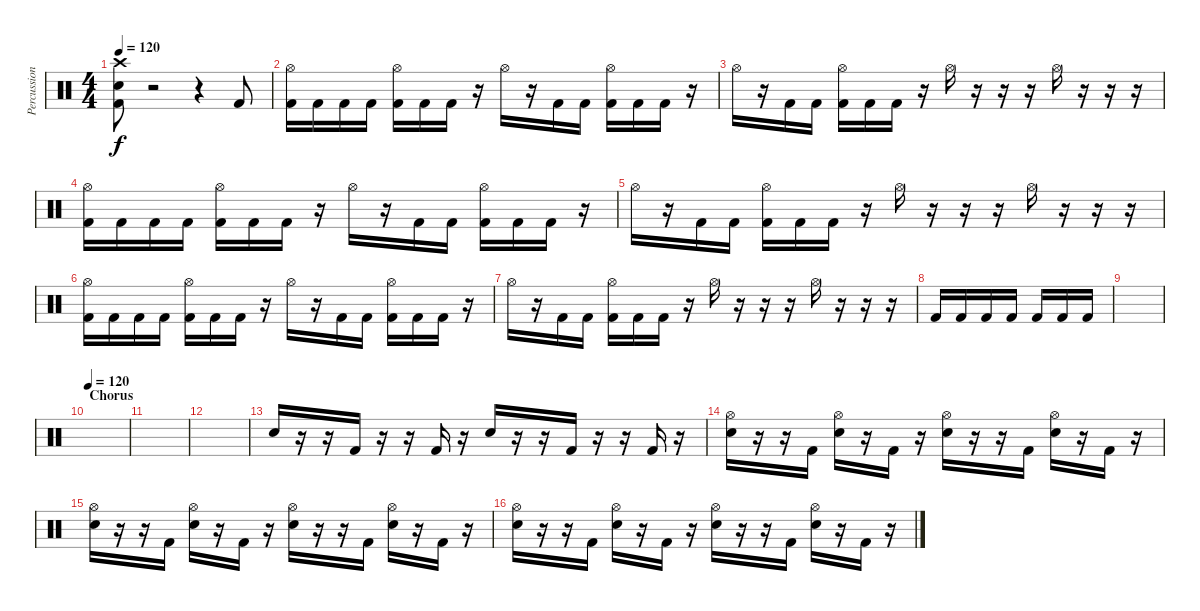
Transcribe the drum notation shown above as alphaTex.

\track ("Percussion" "Percussion") {instrument percussion}
\staff {score}
\articulation defaults
\ts (4 4)
\tempo 120
\clef neutral
\ks c
("Crash high (hit)" "Electric Snare (hit)" "Kick (hit) 2").8{dy f} r.2 r.4 "Kick (hit) 2".8 |
("Hi-Hat (open)" "Kick (hit) 2").16 "Kick (hit) 2".16 "Kick (hit) 2".16 "Kick (hit) 2".16 ("Hi-Hat (open)" "Kick (hit) 2").16 "Kick (hit) 2".16 "Kick (hit) 2".16 r.16 "Hi-Hat (open)".16 r.16 "Kick (hit) 2".16 "Kick (hit) 2".16 ("Hi-Hat (open)" "Kick (hit) 2").16 "Kick (hit) 2".16 "Kick (hit) 2".16 r.16 |
"Hi-Hat (open)".16 r.16 "Kick (hit) 2".16 "Kick (hit) 2".16 ("Hi-Hat (open)" "Kick (hit) 2").16 "Kick (hit) 2".16 "Kick (hit) 2".16 r.16 "Hi-Hat (open)".16 r.16 r.16 r.16 "Hi-Hat (open)".16 r.16 r.16 r.16 |
("Hi-Hat (open)" "Kick (hit) 2").16 "Kick (hit) 2".16 "Kick (hit) 2".16 "Kick (hit) 2".16 ("Hi-Hat (open)" "Kick (hit) 2").16 "Kick (hit) 2".16 "Kick (hit) 2".16 r.16 "Hi-Hat (open)".16 r.16 "Kick (hit) 2".16 "Kick (hit) 2".16 ("Hi-Hat (open)" "Kick (hit) 2").16 "Kick (hit) 2".16 "Kick (hit) 2".16 r.16 |
"Hi-Hat (open)".16 r.16 "Kick (hit) 2".16 "Kick (hit) 2".16 ("Hi-Hat (open)" "Kick (hit) 2").16 "Kick (hit) 2".16 "Kick (hit) 2".16 r.16 "Hi-Hat (open)".16 r.16 r.16 r.16 "Hi-Hat (open)".16 r.16 r.16 r.16 |
("Hi-Hat (open)" "Kick (hit) 2").16 "Kick (hit) 2".16 "Kick (hit) 2".16 "Kick (hit) 2".16 ("Hi-Hat (open)" "Kick (hit) 2").16 "Kick (hit) 2".16 "Kick (hit) 2".16 r.16 "Hi-Hat (open)".16 r.16 "Kick (hit) 2".16 "Kick (hit) 2".16 ("Hi-Hat (open)" "Kick (hit) 2").16 "Kick (hit) 2".16 "Kick (hit) 2".16 r.16 |
"Hi-Hat (open)".16 r.16 "Kick (hit) 2".16 "Kick (hit) 2".16 ("Hi-Hat (open)" "Kick (hit) 2").16 "Kick (hit) 2".16 "Kick (hit) 2".16 r.16 "Hi-Hat (open)".16 r.16 r.16 r.16 "Hi-Hat (open)".16 r.16 r.16 r.16 |
"Kick (hit) 2".16 "Kick (hit) 2".16 "Kick (hit) 2".16 "Kick (hit) 2".16 "Kick (hit) 2".16 "Kick (hit) 2".16 "Kick (hit) 2".16 |
|
\section ("" "Chorus")
\tempo 120
|
|
|
"Electric Snare (hit)".16 r.16 r.16 "Kick (hit) 2".16 r.16 r.16 "Kick (hit) 2".16 r.16 "Electric Snare (hit)".16 r.16 r.16 "Kick (hit) 2".16 r.16 r.16 "Kick (hit) 2".16 r.16 |
("Hi-Hat (open)" "Electric Snare (hit)").16 r.16 r.16 "Kick (hit) 2".16 ("Hi-Hat (open)" "Electric Snare (hit)").16 r.16 "Kick (hit) 2".16 r.16 ("Hi-Hat (open)" "Electric Snare (hit)").16 r.16 r.16 "Kick (hit) 2".16 ("Hi-Hat (open)" "Electric Snare (hit)").16 r.16 "Kick (hit) 2".16 r.16 |
("Hi-Hat (open)" "Electric Snare (hit)").16 r.16 r.16 "Kick (hit) 2".16 ("Hi-Hat (open)" "Electric Snare (hit)").16 r.16 "Kick (hit) 2".16 r.16 ("Hi-Hat (open)" "Electric Snare (hit)").16 r.16 r.16 "Kick (hit) 2".16 ("Hi-Hat (open)" "Electric Snare (hit)").16 r.16 "Kick (hit) 2".16 r.16 |
("Hi-Hat (open)" "Electric Snare (hit)").16 r.16 r.16 "Kick (hit) 2".16 ("Hi-Hat (open)" "Electric Snare (hit)").16 r.16 "Kick (hit) 2".16 r.16 ("Hi-Hat (open)" "Electric Snare (hit)").16 r.16 r.16 "Kick (hit) 2".16 ("Hi-Hat (open)" "Electric Snare (hit)").16 r.16 "Kick (hit) 2".16 r.16
